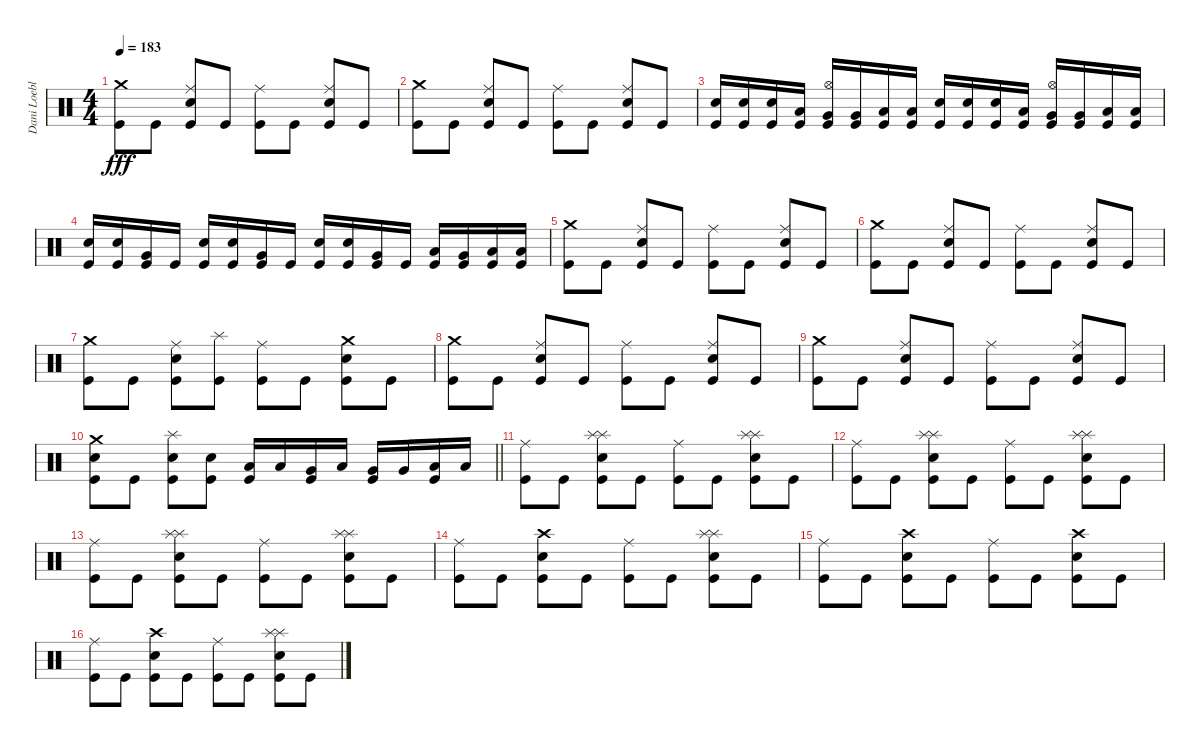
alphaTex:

\track ("Dani Loeble" "Dani Loebl") {instrument percussion}
\staff {score}
\articulation defaults
\ts (4 4)
\tempo 183
\clef neutral
\ks c
("Crash medium (hit)" "Kick (hit)").8{dy fff} "Kick (hit)".8 ("Ride (middle)" "Electric Snare (hit)" "Kick (hit)").8 "Kick (hit)".8 ("Ride (middle)" "Kick (hit)").8 "Kick (hit)".8 ("Ride (middle)" "Electric Snare (hit)" "Kick (hit)").8 "Kick (hit)".8 |
("Crash medium (hit)" "Kick (hit)").8 "Kick (hit)".8 ("Ride (middle)" "Electric Snare (hit)" "Kick (hit)").8 "Kick (hit)".8 ("Ride (middle)" "Kick (hit)").8 "Kick (hit)".8 ("Ride (middle)" "Electric Snare (hit)" "Kick (hit)").8 "Kick (hit)".8 |
("Electric Snare (hit)" "Kick (hit)").16 ("Electric Snare (hit)" "Kick (hit)").16 ("Electric Snare (hit)" "Kick (hit)").16 ("Low Tom (hit)" "Kick (hit)").16 ("Hi-Hat (open)" "Very Low Tom (hit)" "Kick (hit)").16 ("Very Low Tom (hit)" "Kick (hit)").16 ("Low Floor Tom (hit)" "Kick (hit)").16 ("Low Floor Tom (hit)" "Kick (hit)").16 ("Electric Snare (hit)" "Kick (hit)").16 ("Electric Snare (hit)" "Kick (hit)").16 ("Electric Snare (hit)" "Kick (hit)").16 ("Low Tom (hit)" "Kick (hit)").16 ("Hi-Hat (open)" "Very Low Tom (hit)" "Kick (hit)").16 ("Very Low Tom (hit)" "Kick (hit)").16 ("Low Floor Tom (hit)" "Kick (hit)").16 ("Low Floor Tom (hit)" "Kick (hit)").16 |
("Electric Snare (hit)" "Kick (hit)").16 ("Electric Snare (hit)" "Kick (hit)").16 ("Very Low Tom (hit)" "Kick (hit)").16 "Kick (hit)".16 ("Electric Snare (hit)" "Kick (hit)").16 ("Electric Snare (hit)" "Kick (hit)").16 ("Very Low Tom (hit)" "Kick (hit)").16 "Kick (hit)".16 ("Electric Snare (hit)" "Kick (hit)").16 ("Electric Snare (hit)" "Kick (hit)").16 ("Very Low Tom (hit)" "Kick (hit)").16 "Kick (hit)".16 ("Low Tom (hit)" "Kick (hit)").16 ("Very Low Tom (hit)" "Kick (hit)").16 ("Low Floor Tom (hit)" "Kick (hit)").16 ("Low Floor Tom (hit)" "Kick (hit)").16 |
("Crash medium (hit)" "Kick (hit)").8 "Kick (hit)".8 ("Ride (middle)" "Electric Snare (hit)" "Kick (hit)").8 "Kick (hit)".8 ("Ride (middle)" "Kick (hit)").8 "Kick (hit)".8 ("Ride (middle)" "Electric Snare (hit)" "Kick (hit)").8 "Kick (hit)".8 |
("Crash medium (hit)" "Kick (hit)").8 "Kick (hit)".8 ("Ride (middle)" "Electric Snare (hit)" "Kick (hit)").8 "Kick (hit)".8 ("Ride (middle)" "Kick (hit)").8 "Kick (hit)".8 ("Ride (middle)" "Electric Snare (hit)" "Kick (hit)").8 "Kick (hit)".8 |
("Crash medium (hit)" "Kick (hit)").8 "Kick (hit)".8 ("Ride (middle)" "Electric Snare (hit)" "Kick (hit)").8 ("Splash (hit)" "Kick (hit)").8 ("Ride (middle)" "Kick (hit)").8 "Kick (hit)".8 ("Crash medium (hit)" "Electric Snare (hit)" "Kick (hit)").8 "Kick (hit)".8 |
("Crash medium (hit)" "Kick (hit)").8 "Kick (hit)".8 ("Ride (middle)" "Electric Snare (hit)" "Kick (hit)").8 "Kick (hit)".8 ("Ride (middle)" "Kick (hit)").8 "Kick (hit)".8 ("Ride (middle)" "Electric Snare (hit)" "Kick (hit)").8 "Kick (hit)".8 |
("Crash medium (hit)" "Kick (hit)").8 "Kick (hit)".8 ("Ride (middle)" "Electric Snare (hit)" "Kick (hit)").8 "Kick (hit)".8 ("Ride (middle)" "Kick (hit)").8 "Kick (hit)".8 ("Ride (middle)" "Electric Snare (hit)" "Kick (hit)").8 "Kick (hit)".8 |
\barLineRight lightlight
("Crash medium (hit)" "Electric Snare (hit)" "Kick (hit)").8 "Kick (hit)".8 ("Splash (hit)" "Electric Snare (hit)" "Kick (hit)").8 ("Electric Snare (hit)" "Kick (hit)").8 ("Low Tom (hit)" "Kick (hit)").16 "Low Tom (hit)".16 ("Very Low Tom (hit)" "Kick (hit)").16 "Low Floor Tom (hit)".16 ("Very Low Tom (hit)" "Kick (hit)").16 "Very Low Tom (hit)".16 ("Low Floor Tom (hit)" "Kick (hit)").16 "Low Floor Tom (hit)".16 |
("Ride (middle)" "Kick (hit)").8 "Kick (hit)".8 ("Splash (hit)" "Splash (hit)" "Electric Snare (hit)" "Kick (hit)").8 "Kick (hit)".8 ("Ride (middle)" "Kick (hit)").8 "Kick (hit)".8 ("Splash (hit)" "Splash (hit)" "Electric Snare (hit)" "Kick (hit)").8 "Kick (hit)".8 |
("Ride (middle)" "Kick (hit)").8 "Kick (hit)".8 ("Splash (hit)" "Splash (hit)" "Electric Snare (hit)" "Kick (hit)").8 "Kick (hit)".8 ("Ride (middle)" "Kick (hit)").8 "Kick (hit)".8 ("Splash (hit)" "Splash (hit)" "Electric Snare (hit)" "Kick (hit)").8 "Kick (hit)".8 |
("Ride (middle)" "Kick (hit)").8 "Kick (hit)".8 ("Splash (hit)" "Splash (hit)" "Electric Snare (hit)" "Kick (hit)").8 "Kick (hit)".8 ("Ride (middle)" "Kick (hit)").8 "Kick (hit)".8 ("Splash (hit)" "Splash (hit)" "Electric Snare (hit)" "Kick (hit)").8 "Kick (hit)".8 |
("Ride (middle)" "Kick (hit)").8 "Kick (hit)".8 ("Crash high (hit)" "Electric Snare (hit)" "Kick (hit)").8 "Kick (hit)".8 ("Ride (middle)" "Kick (hit)").8 "Kick (hit)".8 ("Splash (hit)" "Splash (hit)" "Electric Snare (hit)" "Kick (hit)").8 "Kick (hit)".8 |
("Ride (middle)" "Kick (hit)").8 "Kick (hit)".8 ("Crash high (hit)" "Electric Snare (hit)" "Kick (hit)").8 "Kick (hit)".8 ("Ride (middle)" "Kick (hit)").8 "Kick (hit)".8 ("Crash high (hit)" "Electric Snare (hit)" "Kick (hit)").8 "Kick (hit)".8 |
("Ride (middle)" "Kick (hit)").8 "Kick (hit)".8 ("Crash high (hit)" "Electric Snare (hit)" "Kick (hit)").8 "Kick (hit)".8 ("Ride (middle)" "Kick (hit)").8 "Kick (hit)".8 ("Splash (hit)" "Splash (hit)" "Electric Snare (hit)" "Kick (hit)").8 "Kick (hit)".8
